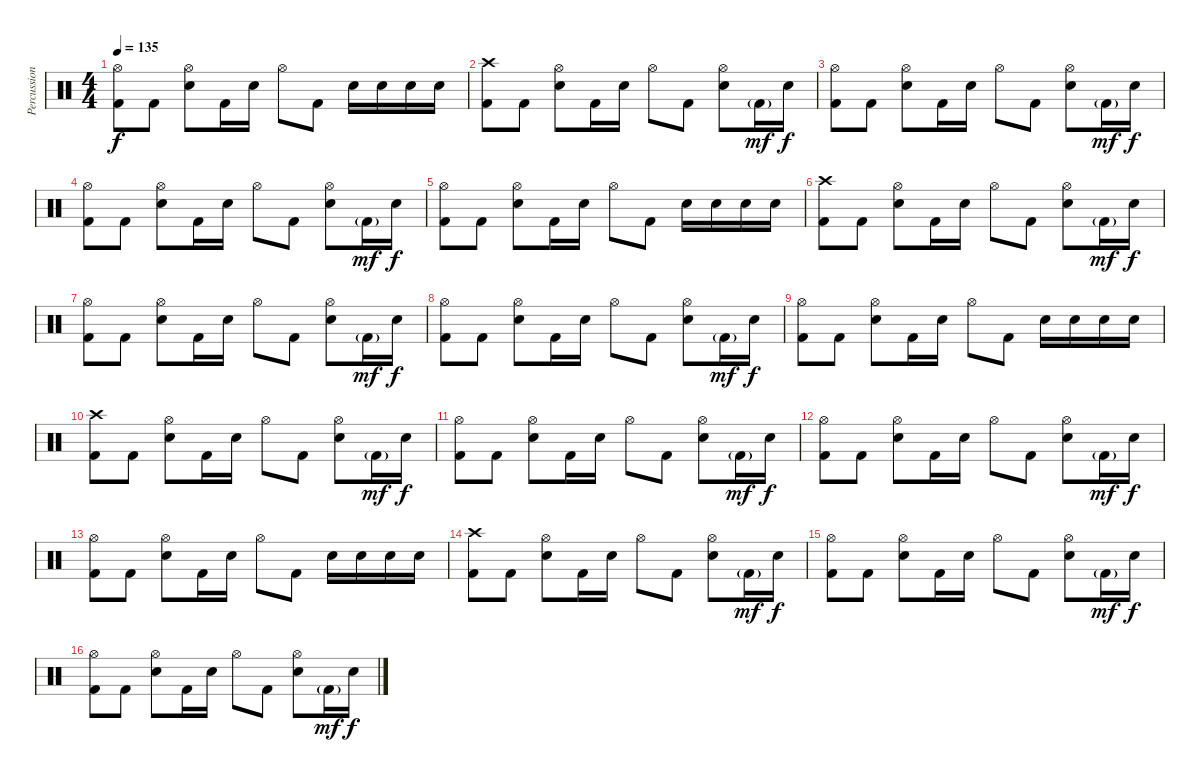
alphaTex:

\track ("Percussions" "Percussion") {instrument percussion}
\staff {score}
\articulation defaults
\ts (4 4)
\tempo 135
\clef neutral
\ks c
("Hi-Hat (open)" "Kick (hit) 2").8{dy f} "Kick (hit) 2".8 ("Hi-Hat (open)" "Snare (hit) 2").8 "Kick (hit) 2".16 "Snare (hit) 2".16 "Hi-Hat (open)".8 "Kick (hit) 2".8 "Snare (hit) 2".16 "Snare (hit) 2".16 "Snare (hit) 2".16 "Snare (hit) 2".16 |
("Crash high (hit)" "Kick (hit) 2").8 "Kick (hit) 2".8 ("Hi-Hat (open)" "Snare (hit) 2").8 "Kick (hit) 2".16 "Snare (hit) 2".16 "Hi-Hat (open)".8 "Kick (hit) 2".8 ("Hi-Hat (open)" "Snare (hit) 2").8 "Kick (hit) 2"{g}.16{dy mf} "Snare (hit) 2".16{dy f} |
("Hi-Hat (open)" "Kick (hit) 2").8 "Kick (hit) 2".8 ("Hi-Hat (open)" "Snare (hit) 2").8 "Kick (hit) 2".16 "Snare (hit) 2".16 "Hi-Hat (open)".8 "Kick (hit) 2".8 ("Hi-Hat (open)" "Snare (hit) 2").8 "Kick (hit) 2"{g}.16{dy mf} "Snare (hit) 2".16{dy f} |
("Hi-Hat (open)" "Kick (hit) 2").8 "Kick (hit) 2".8 ("Hi-Hat (open)" "Snare (hit) 2").8 "Kick (hit) 2".16 "Snare (hit) 2".16 "Hi-Hat (open)".8 "Kick (hit) 2".8 ("Hi-Hat (open)" "Snare (hit) 2").8 "Kick (hit) 2"{g}.16{dy mf} "Snare (hit) 2".16{dy f} |
("Hi-Hat (open)" "Kick (hit) 2").8 "Kick (hit) 2".8 ("Hi-Hat (open)" "Snare (hit) 2").8 "Kick (hit) 2".16 "Snare (hit) 2".16 "Hi-Hat (open)".8 "Kick (hit) 2".8 "Snare (hit) 2".16 "Snare (hit) 2".16 "Snare (hit) 2".16 "Snare (hit) 2".16 |
("Crash high (hit)" "Kick (hit) 2").8 "Kick (hit) 2".8 ("Hi-Hat (open)" "Snare (hit) 2").8 "Kick (hit) 2".16 "Snare (hit) 2".16 "Hi-Hat (open)".8 "Kick (hit) 2".8 ("Hi-Hat (open)" "Snare (hit) 2").8 "Kick (hit) 2"{g}.16{dy mf} "Snare (hit) 2".16{dy f} |
("Hi-Hat (open)" "Kick (hit) 2").8 "Kick (hit) 2".8 ("Hi-Hat (open)" "Snare (hit) 2").8 "Kick (hit) 2".16 "Snare (hit) 2".16 "Hi-Hat (open)".8 "Kick (hit) 2".8 ("Hi-Hat (open)" "Snare (hit) 2").8 "Kick (hit) 2"{g}.16{dy mf} "Snare (hit) 2".16{dy f} |
("Hi-Hat (open)" "Kick (hit) 2").8 "Kick (hit) 2".8 ("Hi-Hat (open)" "Snare (hit) 2").8 "Kick (hit) 2".16 "Snare (hit) 2".16 "Hi-Hat (open)".8 "Kick (hit) 2".8 ("Hi-Hat (open)" "Snare (hit) 2").8 "Kick (hit) 2"{g}.16{dy mf} "Snare (hit) 2".16{dy f} |
("Hi-Hat (open)" "Kick (hit) 2").8 "Kick (hit) 2".8 ("Hi-Hat (open)" "Snare (hit) 2").8 "Kick (hit) 2".16 "Snare (hit) 2".16 "Hi-Hat (open)".8 "Kick (hit) 2".8 "Snare (hit) 2".16 "Snare (hit) 2".16 "Snare (hit) 2".16 "Snare (hit) 2".16 |
("Crash high (hit)" "Kick (hit) 2").8 "Kick (hit) 2".8 ("Hi-Hat (open)" "Snare (hit) 2").8 "Kick (hit) 2".16 "Snare (hit) 2".16 "Hi-Hat (open)".8 "Kick (hit) 2".8 ("Hi-Hat (open)" "Snare (hit) 2").8 "Kick (hit) 2"{g}.16{dy mf} "Snare (hit) 2".16{dy f} |
("Hi-Hat (open)" "Kick (hit) 2").8 "Kick (hit) 2".8 ("Hi-Hat (open)" "Snare (hit) 2").8 "Kick (hit) 2".16 "Snare (hit) 2".16 "Hi-Hat (open)".8 "Kick (hit) 2".8 ("Hi-Hat (open)" "Snare (hit) 2").8 "Kick (hit) 2"{g}.16{dy mf} "Snare (hit) 2".16{dy f} |
("Hi-Hat (open)" "Kick (hit) 2").8 "Kick (hit) 2".8 ("Hi-Hat (open)" "Snare (hit) 2").8 "Kick (hit) 2".16 "Snare (hit) 2".16 "Hi-Hat (open)".8 "Kick (hit) 2".8 ("Hi-Hat (open)" "Snare (hit) 2").8 "Kick (hit) 2"{g}.16{dy mf} "Snare (hit) 2".16{dy f} |
("Hi-Hat (open)" "Kick (hit) 2").8 "Kick (hit) 2".8 ("Hi-Hat (open)" "Snare (hit) 2").8 "Kick (hit) 2".16 "Snare (hit) 2".16 "Hi-Hat (open)".8 "Kick (hit) 2".8 "Snare (hit) 2".16 "Snare (hit) 2".16 "Snare (hit) 2".16 "Snare (hit) 2".16 |
("Crash high (hit)" "Kick (hit) 2").8 "Kick (hit) 2".8 ("Hi-Hat (open)" "Snare (hit) 2").8 "Kick (hit) 2".16 "Snare (hit) 2".16 "Hi-Hat (open)".8 "Kick (hit) 2".8 ("Hi-Hat (open)" "Snare (hit) 2").8 "Kick (hit) 2"{g}.16{dy mf} "Snare (hit) 2".16{dy f} |
("Hi-Hat (open)" "Kick (hit) 2").8 "Kick (hit) 2".8 ("Hi-Hat (open)" "Snare (hit) 2").8 "Kick (hit) 2".16 "Snare (hit) 2".16 "Hi-Hat (open)".8 "Kick (hit) 2".8 ("Hi-Hat (open)" "Snare (hit) 2").8 "Kick (hit) 2"{g}.16{dy mf} "Snare (hit) 2".16{dy f} |
("Hi-Hat (open)" "Kick (hit) 2").8 "Kick (hit) 2".8 ("Hi-Hat (open)" "Snare (hit) 2").8 "Kick (hit) 2".16 "Snare (hit) 2".16 "Hi-Hat (open)".8 "Kick (hit) 2".8 ("Hi-Hat (open)" "Snare (hit) 2").8 "Kick (hit) 2"{g}.16{dy mf} "Snare (hit) 2".16{dy f}
